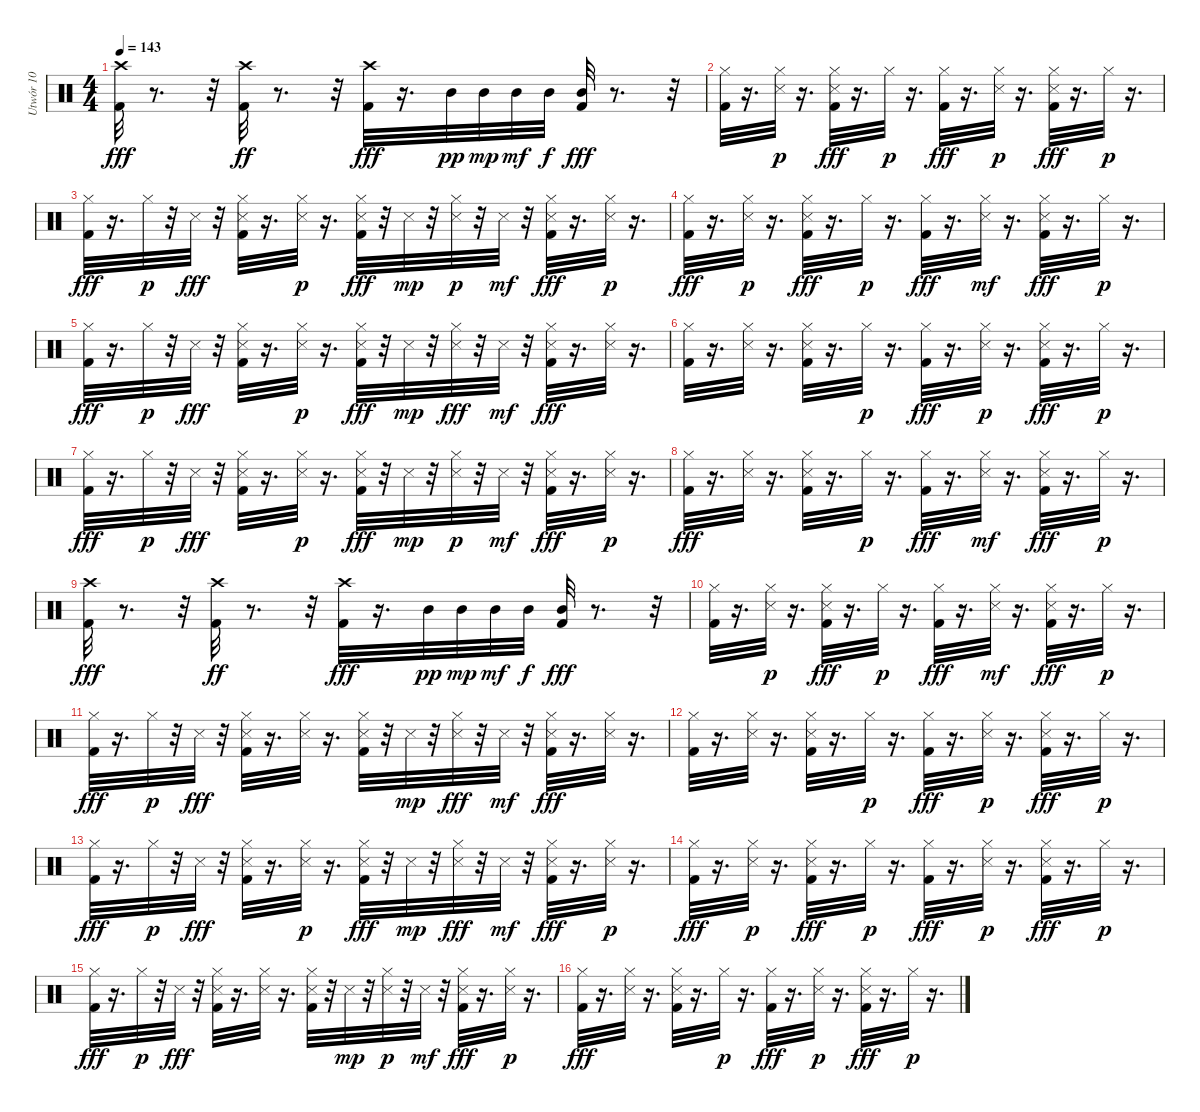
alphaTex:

\track ("Utwór 10" "Utwór 10") {instrument percussion}
\staff {score}
\articulation defaults
\ts (4 4)
\tempo 143
\clef neutral
\ks c
("Crash high (hit)" "Kick (hit) 2").32{dy fff} r.8{d} r.32 ("Kick (hit) 2" "Crash high (hit)").32{dy ff} r.8{d} r.32 ("Crash high (hit)" "Kick (hit) 2").32{dy fff} r.16{d} "Mid Tom (hit)".32{dy pp} "Mid Tom (hit)".32{dy mp} "Mid Tom (hit)".32{dy mf} "Mid Tom (hit)".32{dy f} ("Kick (hit) 2" "Mid Tom (hit)").32{dy fff} r.8{d} r.32 |
("Kick (hit) 2" "Hi-Hat (closed)").32 r.16{d} ("Snare (side stick) 3" "Hi-Hat (closed)").32{dy p} r.16{d} ("Snare (side stick) 3" "Kick (hit) 2" "Hi-Hat (closed)").32{dy fff} r.16{d} "Hi-Hat (closed)".32{dy p} r.16{d} ("Kick (hit) 2" "Hi-Hat (closed)").32{dy fff} r.16{d} ("Snare (side stick) 3" "Hi-Hat (closed)").32{dy p} r.16{d} ("Snare (side stick) 3" "Kick (hit) 2" "Hi-Hat (closed)").32{dy fff} r.16{d} "Hi-Hat (closed)".32{dy p} r.16{d} |
("Kick (hit) 2" "Hi-Hat (closed)").32{dy fff} r.16{d} "Hi-Hat (closed)".32{dy p} r.32 "Snare (side stick) 3".32{dy fff} r.32 ("Snare (side stick) 3" "Hi-Hat (closed)" "Kick (hit) 2").32 r.16{d} ("Snare (side stick) 3" "Hi-Hat (closed)").32{dy p} r.16{d} ("Kick (hit) 2" "Snare (side stick) 3" "Hi-Hat (closed)").32{dy fff} r.32 "Snare (side stick) 3".32{dy mp} r.32 ("Snare (side stick) 3" "Hi-Hat (closed)").32{dy p} r.32 "Snare (side stick) 3".32{dy mf} r.32 ("Hi-Hat (closed)" "Snare (side stick) 3" "Kick (hit) 2").32{dy fff} r.16{d} ("Snare (side stick) 3" "Hi-Hat (closed)").32{dy p} r.16{d} |
("Kick (hit) 2" "Hi-Hat (closed)").32{dy fff} r.16{d} ("Snare (side stick) 3" "Hi-Hat (closed)").32{dy p} r.16{d} ("Hi-Hat (closed)" "Kick (hit) 2" "Snare (side stick) 3").32{dy fff} r.16{d} "Hi-Hat (closed)".32{dy p} r.16{d} ("Hi-Hat (closed)" "Kick (hit) 2").32{dy fff} r.16{d} ("Hi-Hat (closed)" "Snare (side stick) 3").32{dy mf} r.16{d} ("Kick (hit) 2" "Hi-Hat (closed)" "Snare (side stick) 3").32{dy fff} r.16{d} "Hi-Hat (closed)".32{dy p} r.16{d} |
("Hi-Hat (closed)" "Kick (hit) 2").32{dy fff} r.16{d} "Hi-Hat (closed)".32{dy p} r.32 "Snare (side stick) 3".32{dy fff} r.32 ("Hi-Hat (closed)" "Kick (hit) 2" "Snare (side stick) 3").32 r.16{d} ("Snare (side stick) 3" "Hi-Hat (closed)").32{dy p} r.16{d} ("Kick (hit) 2" "Hi-Hat (closed)" "Snare (side stick) 3").32{dy fff} r.32 "Snare (side stick) 3".32{dy mp} r.32 ("Hi-Hat (closed)" "Snare (side stick) 3").32{dy fff} r.32 "Snare (side stick) 3".32{dy mf} r.32 ("Hi-Hat (closed)" "Kick (hit) 2" "Snare (side stick) 3").32{dy fff} r.16{d} ("Hi-Hat (closed)" "Snare (side stick) 3").32 r.16{d} |
("Kick (hit) 2" "Hi-Hat (closed)").32 r.16{d} ("Hi-Hat (closed)" "Snare (side stick) 3").32 r.16{d} ("Hi-Hat (closed)" "Kick (hit) 2" "Snare (side stick) 3").32 r.16{d} "Hi-Hat (closed)".32{dy p} r.16{d} ("Kick (hit) 2" "Hi-Hat (closed)").32{dy fff} r.16{d} ("Snare (side stick) 3" "Hi-Hat (closed)").32{dy p} r.16{d} ("Snare (side stick) 3" "Hi-Hat (closed)" "Kick (hit) 2").32{dy fff} r.16{d} "Hi-Hat (closed)".32{dy p} r.16{d} |
("Kick (hit) 2" "Hi-Hat (closed)").32{dy fff} r.16{d} "Hi-Hat (closed)".32{dy p} r.32 "Snare (side stick) 3".32{dy fff} r.32 ("Kick (hit) 2" "Hi-Hat (closed)" "Snare (side stick) 3").32 r.16{d} ("Snare (side stick) 3" "Hi-Hat (closed)").32{dy p} r.16{d} ("Snare (side stick) 3" "Kick (hit) 2" "Hi-Hat (closed)").32{dy fff} r.32 "Snare (side stick) 3".32{dy mp} r.32 ("Snare (side stick) 3" "Hi-Hat (closed)").32{dy p} r.32 "Snare (side stick) 3".32{dy mf} r.32 ("Snare (side stick) 3" "Kick (hit) 2" "Hi-Hat (closed)").32{dy fff} r.16{d} ("Snare (side stick) 3" "Hi-Hat (closed)").32{dy p} r.16{d} |
("Hi-Hat (closed)" "Kick (hit) 2").32{dy fff} r.16{d} ("Hi-Hat (closed)" "Snare (side stick) 3").32 r.16{d} ("Snare (side stick) 3" "Kick (hit) 2" "Hi-Hat (closed)").32 r.16{d} "Hi-Hat (closed)".32{dy p} r.16{d} ("Hi-Hat (closed)" "Kick (hit) 2").32{dy fff} r.16{d} ("Hi-Hat (closed)" "Snare (side stick) 3").32{dy mf} r.16{d} ("Hi-Hat (closed)" "Kick (hit) 2" "Snare (side stick) 3").32{dy fff} r.16{d} "Hi-Hat (closed)".32{dy p} r.16{d} |
("Crash high (hit)" "Kick (hit) 2").32{dy fff} r.8{d} r.32 ("Kick (hit) 2" "Crash high (hit)").32{dy ff} r.8{d} r.32 ("Crash high (hit)" "Kick (hit) 2").32{dy fff} r.16{d} "Mid Tom (hit)".32{dy pp} "Mid Tom (hit)".32{dy mp} "Mid Tom (hit)".32{dy mf} "Mid Tom (hit)".32{dy f} ("Kick (hit) 2" "Mid Tom (hit)").32{dy fff} r.8{d} r.32 |
("Hi-Hat (closed)" "Kick (hit) 2").32 r.16{d} ("Snare (side stick) 3" "Hi-Hat (closed)").32{dy p} r.16{d} ("Snare (side stick) 3" "Kick (hit) 2" "Hi-Hat (closed)").32{dy fff} r.16{d} "Hi-Hat (closed)".32{dy p} r.16{d} ("Kick (hit) 2" "Hi-Hat (closed)").32{dy fff} r.16{d} ("Hi-Hat (closed)" "Snare (side stick) 3").32{dy mf} r.16{d} ("Snare (side stick) 3" "Kick (hit) 2" "Hi-Hat (closed)").32{dy fff} r.16{d} "Hi-Hat (closed)".32{dy p} r.16{d} |
("Kick (hit) 2" "Hi-Hat (closed)").32{dy fff} r.16{d} "Hi-Hat (closed)".32{dy p} r.32 "Snare (side stick) 3".32{dy fff} r.32 ("Kick (hit) 2" "Snare (side stick) 3" "Hi-Hat (closed)").32 r.16{d} ("Hi-Hat (closed)" "Snare (side stick) 3").32 r.16{d} ("Snare (side stick) 3" "Kick (hit) 2" "Hi-Hat (closed)").32 r.32 "Snare (side stick) 3".32{dy mp} r.32 ("Hi-Hat (closed)" "Snare (side stick) 3").32{dy fff} r.32 "Snare (side stick) 3".32{dy mf} r.32 ("Hi-Hat (closed)" "Snare (side stick) 3" "Kick (hit) 2").32{dy fff} r.16{d} ("Hi-Hat (closed)" "Snare (side stick) 3").32 r.16{d} |
("Hi-Hat (closed)" "Kick (hit) 2").32 r.16{d} ("Hi-Hat (closed)" "Snare (side stick) 3").32 r.16{d} ("Hi-Hat (closed)" "Snare (side stick) 3" "Kick (hit) 2").32 r.16{d} "Hi-Hat (closed)".32{dy p} r.16{d} ("Kick (hit) 2" "Hi-Hat (closed)").32{dy fff} r.16{d} ("Snare (side stick) 3" "Hi-Hat (closed)").32{dy p} r.16{d} ("Kick (hit) 2" "Snare (side stick) 3" "Hi-Hat (closed)").32{dy fff} r.16{d} "Hi-Hat (closed)".32{dy p} r.16{d} |
("Kick (hit) 2" "Hi-Hat (closed)").32{dy fff} r.16{d} "Hi-Hat (closed)".32{dy p} r.32 "Snare (side stick) 3".32{dy fff} r.32 ("Kick (hit) 2" "Snare (side stick) 3" "Hi-Hat (closed)").32 r.16{d} ("Snare (side stick) 3" "Hi-Hat (closed)").32{dy p} r.16{d} ("Kick (hit) 2" "Snare (side stick) 3" "Hi-Hat (closed)").32{dy fff} r.32 "Snare (side stick) 3".32{dy mp} r.32 ("Hi-Hat (closed)" "Snare (side stick) 3").32{dy fff} r.32 "Snare (side stick) 3".32{dy mf} r.32 ("Snare (side stick) 3" "Kick (hit) 2" "Hi-Hat (closed)").32{dy fff} r.16{d} ("Snare (side stick) 3" "Hi-Hat (closed)").32{dy p} r.16{d} |
("Hi-Hat (closed)" "Kick (hit) 2").32{dy fff} r.16{d} ("Snare (side stick) 3" "Hi-Hat (closed)").32{dy p} r.16{d} ("Snare (side stick) 3" "Kick (hit) 2" "Hi-Hat (closed)").32{dy fff} r.16{d} "Hi-Hat (closed)".32{dy p} r.16{d} ("Hi-Hat (closed)" "Kick (hit) 2").32{dy fff} r.16{d} ("Snare (side stick) 3" "Hi-Hat (closed)").32{dy p} r.16{d} ("Hi-Hat (closed)" "Snare (side stick) 3" "Kick (hit) 2").32{dy fff} r.16{d} "Hi-Hat (closed)".32{dy p} r.16{d} |
("Hi-Hat (closed)" "Kick (hit) 2").32{dy fff} r.16{d} "Hi-Hat (closed)".32{dy p} r.32 "Snare (side stick) 3".32{dy fff} r.32 ("Snare (side stick) 3" "Kick (hit) 2" "Hi-Hat (closed)").32 r.16{d} ("Hi-Hat (closed)" "Snare (side stick) 3").32 r.16{d} ("Snare (side stick) 3" "Kick (hit) 2" "Hi-Hat (closed)").32 r.32 "Snare (side stick) 3".32{dy mp} r.32 ("Snare (side stick) 3" "Hi-Hat (closed)").32{dy p} r.32 "Snare (side stick) 3".32{dy mf} r.32 ("Snare (side stick) 3" "Hi-Hat (closed)" "Kick (hit) 2").32{dy fff} r.16{d} ("Snare (side stick) 3" "Hi-Hat (closed)").32{dy p} r.16{d} |
("Kick (hit) 2" "Hi-Hat (closed)").32{dy fff} r.16{d} ("Hi-Hat (closed)" "Snare (side stick) 3").32 r.16{d} ("Snare (side stick) 3" "Hi-Hat (closed)" "Kick (hit) 2").32 r.16{d} "Hi-Hat (closed)".32{dy p} r.16{d} ("Hi-Hat (closed)" "Kick (hit) 2").32{dy fff} r.16{d} ("Snare (side stick) 3" "Hi-Hat (closed)").32{dy p} r.16{d} ("Hi-Hat (closed)" "Kick (hit) 2" "Snare (side stick) 3").32{dy fff} r.16{d} "Hi-Hat (closed)".32{dy p} r.16{d}
